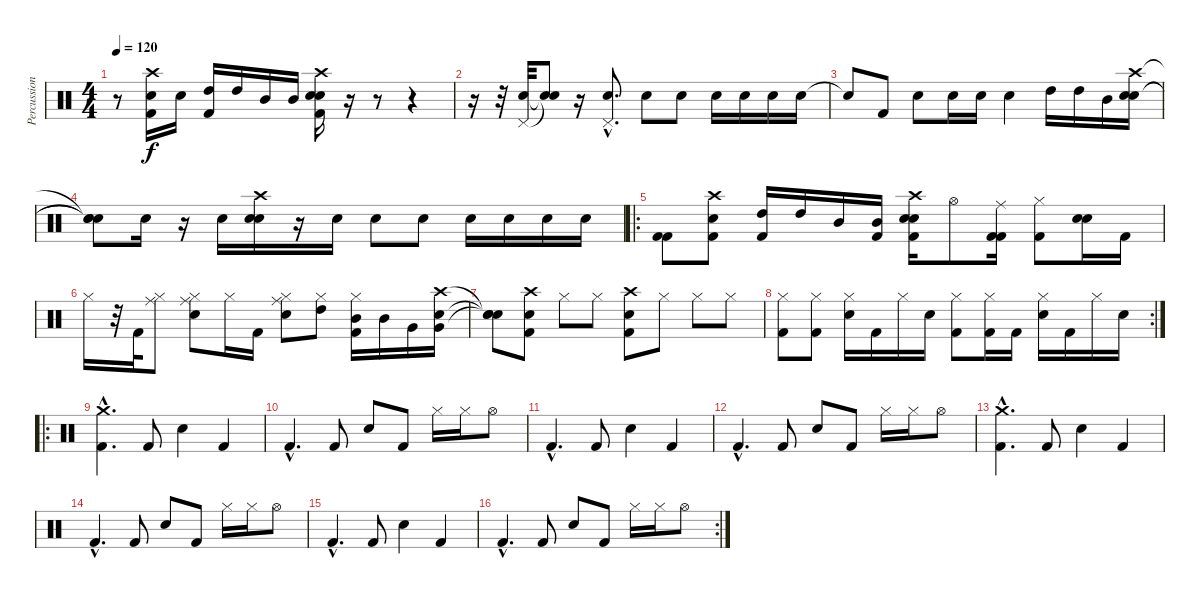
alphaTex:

\track ("Percussion" "Percussion") {instrument percussion}
\staff {score}
\articulation defaults
\ts (4 4)
\tempo 120
\clef neutral
\ks c
r.8{dy f} ("Crash high (hit)" "Snare (hit) 2" "Kick (hit) 2").16 "Snare (hit) 2".16 ("High Tom (hit)" "Kick (hit) 2").16 "High Tom (hit)".16 "Mid Tom (hit)".16 "Mid Tom (hit)".16 ("Crash high (hit)" "Snare (hit) 2" "Snare (hit) 2" "Kick (hit) 2").16 r.16 r.8 r.4 |
r.16 r.32 ("Pedal Hi-Hat (hit)" "Snare (hit) 2").32 ("Snare (hit)"{t} "Snare (hit)"{t}).8 r.16 ("Pedal Hi-Hat (hit)"{hac} "Snare (hit) 2"{hac}).8{d} "Snare (hit) 2".8 "Snare (hit) 2".8 "Snare (hit) 2".16 "Snare (hit) 2".16 "Snare (hit) 2".16 "Snare (hit) 2".16 |
"Snare (hit)"{t}.8 "Kick (hit) 2".8 "Snare (hit) 2".8 "Snare (hit) 2".16 "Snare (hit) 2".16 "Snare (hit) 2".4 "High Tom (hit)".16 "High Tom (hit)".16 "Mid Tom (hit)".16 ("Crash high (hit)" "Snare (hit) 2" "Snare (hit) 2").16 |
("Snare (hit)"{t} "Snare (hit)"{t} "Snare (hit)"{t}).8 "Snare (hit) 2".16 r.16 "Snare (hit) 2".16 ("Crash high (hit)" "Snare (hit) 2" "Snare (hit) 2").16 r.16 "Snare (hit) 2".16 "Snare (hit) 2".8 "Snare (hit) 2".8 "Snare (hit) 2".16 "Snare (hit) 2".16 "Snare (hit) 2".16 "Snare (hit) 2".16 |
\ro
("Kick (hit) 2" "Kick (hit) 2").8 ("Crash high (hit)" "Snare (hit) 2" "Kick (hit) 2").8 ("High Tom (hit)" "Kick (hit) 2").16 "High Tom (hit)".16 "Mid Tom (hit)".16 ("Mid Tom (hit)" "Kick (hit) 2").16 ("Crash high (hit)" "Snare (hit) 2" "Snare (hit) 2" "Kick (hit) 2").16 "Hi-Hat (open)".8 ("Ride (middle)" "Kick (hit) 2" "Kick (hit) 2").16 ("Hi-Hat (closed)" "Kick (hit) 2").8 ("Snare (hit) 2" "Snare (hit) 2").16 "Kick (hit) 2".16 |
"Hi-Hat (closed)".16 r.32 "Kick (hit) 2".32 ("Hi-Hat (closed)" "Ride (middle)").8 ("Hi-Hat (closed)" "Ride (middle)" "Snare (hit) 2").8 "Hi-Hat (closed)".16 "Kick (hit) 2".16 ("Hi-Hat (closed)" "Ride (middle)" "Snare (hit) 2").8 ("Hi-Hat (closed)" "High Tom (hit)").8 ("Hi-Hat (closed)" "Mid Tom (hit)" "Kick (hit) 2").16 "Mid Tom (hit)".16 "Very Low Tom (hit)".16 ("Crash high (hit)" "Snare (hit) 2" "Very Low Tom (hit)").16 |
("Snare (hit)"{t} "Snare (hit)"{t} "Snare (hit)"{t}).8 ("Crash high (hit)" "Snare (hit) 2" "Kick (hit) 2").8 "Hi-Hat (closed)".8 "Hi-Hat (closed)".8 ("Crash high (hit)" "Snare (hit) 2" "Kick (hit) 2").8 "Hi-Hat (closed)".8 "Hi-Hat (closed)".8 "Hi-Hat (closed)".8 |
\rc 2
("Hi-Hat (closed)" "Kick (hit) 2").8 ("Hi-Hat (closed)" "Kick (hit) 2").8 ("Hi-Hat (closed)" "Snare (hit) 2").16 "Kick (hit) 2".16 "Hi-Hat (closed)".16 "Snare (hit) 2".16 ("Hi-Hat (closed)" "Kick (hit) 2").8 ("Hi-Hat (closed)" "Kick (hit) 2").16 "Kick (hit) 2".16 ("Hi-Hat (closed)" "Snare (hit) 2").16 "Kick (hit) 2".16 "Hi-Hat (closed)".16 "Snare (hit) 2".16 |
\ro
("Crash medium (hit)"{hac} "Kick (hit) 2"{hac}).4{d} "Kick (hit) 2".8 "Snare (hit) 2".4 "Kick (hit) 2".4 |
"Kick (hit) 2"{hac}.4{d} "Kick (hit) 2".8 "Snare (hit) 2".8 "Kick (hit) 2".8 "Hi-Hat (closed)".16 "Hi-Hat (closed)".16 "Hi-Hat (open)".8 |
"Kick (hit) 2"{hac}.4{d} "Kick (hit) 2".8 "Snare (hit) 2".4 "Kick (hit) 2".4 |
"Kick (hit) 2"{hac}.4{d} "Kick (hit) 2".8 "Snare (hit) 2".8 "Kick (hit) 2".8 "Hi-Hat (closed)".16 "Hi-Hat (closed)".16 "Hi-Hat (open)".8 |
("Crash medium (hit)"{hac} "Kick (hit) 2"{hac}).4{d} "Kick (hit) 2".8 "Snare (hit) 2".4 "Kick (hit) 2".4 |
"Kick (hit) 2"{hac}.4{d} "Kick (hit) 2".8 "Snare (hit) 2".8 "Kick (hit) 2".8 "Hi-Hat (closed)".16 "Hi-Hat (closed)".16 "Hi-Hat (open)".8 |
"Kick (hit) 2"{hac}.4{d} "Kick (hit) 2".8 "Snare (hit) 2".4 "Kick (hit) 2".4 |
\rc 2 "Kick (hit) 2"{hac}.4{d} "Kick (hit) 2".8 "Snare (hit) 2".8 "Kick (hit) 2".8 "Hi-Hat (closed)".16 "Hi-Hat (closed)".16 "Hi-Hat (open)".8
